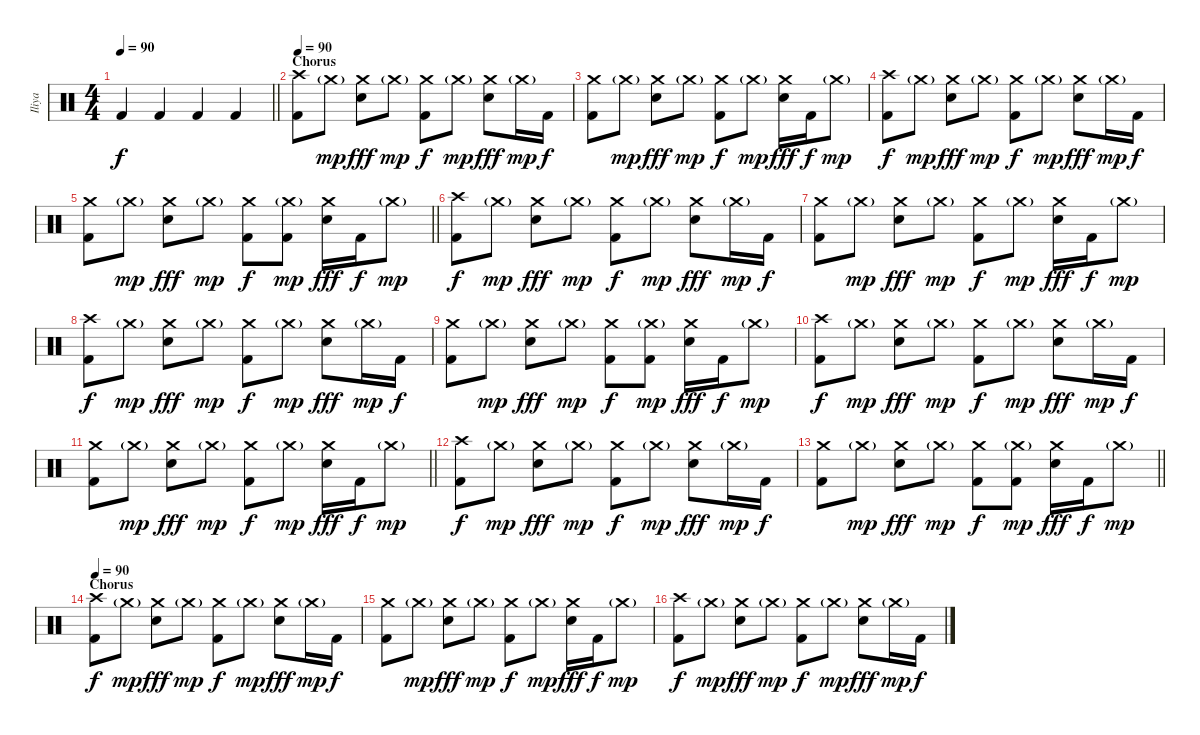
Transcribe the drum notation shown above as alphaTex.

\track ("Iliya" "Iliya") {instrument percussion}
\staff {score}
\articulation defaults
\ts (4 4)
\tempo 90
\clef neutral
\barLineRight lightlight
\ks c "Kick (hit) 2".4{dy f} "Kick (hit) 2".4 "Kick (hit) 2".4 "Kick (hit) 2".4
|
\section ("" "Chorus")
\tempo 90
("Crash high (hit)" "Kick (hit) 2").8 "Crash medium (hit)"{g}.8{dy mp} ("Crash medium (hit)" "Snare (hit) 2").8{dy fff} "Crash medium (hit)"{g}.8{dy mp} ("Crash medium (hit)" "Kick (hit) 2").8{dy f} "Crash medium (hit)"{g}.8{dy mp} ("Crash medium (hit)" "Snare (hit) 2").8{dy fff} "Crash medium (hit)"{g}.16{dy mp} "Kick (hit) 2".16{dy f} |
("Crash medium (hit)" "Kick (hit) 2").8 "Crash medium (hit)"{g}.8{dy mp} ("Crash medium (hit)" "Snare (hit) 2").8{dy fff} "Crash medium (hit)"{g}.8{dy mp} ("Crash medium (hit)" "Kick (hit) 2").8{dy f} "Crash medium (hit)"{g}.8{dy mp} ("Crash medium (hit)" "Snare (hit) 2").16{dy fff} "Kick (hit) 2".16{dy f} "Crash medium (hit)"{g}.8{dy mp} |
("Crash high (hit)" "Kick (hit) 2").8{dy f} "Crash medium (hit)"{g}.8{dy mp} ("Crash medium (hit)" "Snare (hit) 2").8{dy fff} "Crash medium (hit)"{g}.8{dy mp} ("Crash medium (hit)" "Kick (hit) 2").8{dy f} "Crash medium (hit)"{g}.8{dy mp} ("Crash medium (hit)" "Snare (hit) 2").8{dy fff} "Crash medium (hit)"{g}.16{dy mp} "Kick (hit) 2".16{dy f} |
\barLineRight lightlight
("Crash medium (hit)" "Kick (hit) 2").8 "Crash medium (hit)"{g}.8{dy mp} ("Crash medium (hit)" "Snare (hit) 2").8{dy fff} "Crash medium (hit)"{g}.8{dy mp} ("Crash medium (hit)" "Kick (hit) 2").8{dy f} ("Crash medium (hit)"{g} "Kick (hit) 2").8{dy mp} ("Crash medium (hit)" "Snare (hit) 2").16{dy fff} "Kick (hit) 2".16{dy f} "Crash medium (hit)"{g}.8{dy mp} |
("Crash high (hit)" "Kick (hit) 2").8{dy f} "Crash medium (hit)"{g}.8{dy mp} ("Crash medium (hit)" "Snare (hit) 2").8{dy fff} "Crash medium (hit)"{g}.8{dy mp} ("Crash medium (hit)" "Kick (hit) 2").8{dy f} "Crash medium (hit)"{g}.8{dy mp} ("Crash medium (hit)" "Snare (hit) 2").8{dy fff} "Crash medium (hit)"{g}.16{dy mp} "Kick (hit) 2".16{dy f} |
("Crash medium (hit)" "Kick (hit) 2").8 "Crash medium (hit)"{g}.8{dy mp} ("Crash medium (hit)" "Snare (hit) 2").8{dy fff} "Crash medium (hit)"{g}.8{dy mp} ("Crash medium (hit)" "Kick (hit) 2").8{dy f} "Crash medium (hit)"{g}.8{dy mp} ("Crash medium (hit)" "Snare (hit) 2").16{dy fff} "Kick (hit) 2".16{dy f} "Crash medium (hit)"{g}.8{dy mp} |
("Crash high (hit)" "Kick (hit) 2").8{dy f} "Crash medium (hit)"{g}.8{dy mp} ("Crash medium (hit)" "Snare (hit) 2").8{dy fff} "Crash medium (hit)"{g}.8{dy mp} ("Crash medium (hit)" "Kick (hit) 2").8{dy f} "Crash medium (hit)"{g}.8{dy mp} ("Crash medium (hit)" "Snare (hit) 2").8{dy fff} "Crash medium (hit)"{g}.16{dy mp} "Kick (hit) 2".16{dy f} |
("Crash medium (hit)" "Kick (hit) 2").8 "Crash medium (hit)"{g}.8{dy mp} ("Crash medium (hit)" "Snare (hit) 2").8{dy fff} "Crash medium (hit)"{g}.8{dy mp} ("Crash medium (hit)" "Kick (hit) 2").8{dy f} ("Crash medium (hit)"{g} "Kick (hit) 2").8{dy mp} ("Crash medium (hit)" "Snare (hit) 2").16{dy fff} "Kick (hit) 2".16{dy f} "Crash medium (hit)"{g}.8{dy mp} |
("Crash high (hit)" "Kick (hit) 2").8{dy f} "Crash medium (hit)"{g}.8{dy mp} ("Crash medium (hit)" "Snare (hit) 2").8{dy fff} "Crash medium (hit)"{g}.8{dy mp} ("Crash medium (hit)" "Kick (hit) 2").8{dy f} "Crash medium (hit)"{g}.8{dy mp} ("Crash medium (hit)" "Snare (hit) 2").8{dy fff} "Crash medium (hit)"{g}.16{dy mp} "Kick (hit) 2".16{dy f} |
\barLineRight lightlight
("Crash medium (hit)" "Kick (hit) 2").8 "Crash medium (hit)"{g}.8{dy mp} ("Crash medium (hit)" "Snare (hit) 2").8{dy fff} "Crash medium (hit)"{g}.8{dy mp} ("Crash medium (hit)" "Kick (hit) 2").8{dy f} "Crash medium (hit)"{g}.8{dy mp} ("Crash medium (hit)" "Snare (hit) 2").16{dy fff} "Kick (hit) 2".16{dy f} "Crash medium (hit)"{g}.8{dy mp} |
("Crash high (hit)" "Kick (hit) 2").8{dy f} "Crash medium (hit)"{g}.8{dy mp} ("Crash medium (hit)" "Snare (hit) 2").8{dy fff} "Crash medium (hit)"{g}.8{dy mp} ("Crash medium (hit)" "Kick (hit) 2").8{dy f} "Crash medium (hit)"{g}.8{dy mp} ("Crash medium (hit)" "Snare (hit) 2").8{dy fff} "Crash medium (hit)"{g}.16{dy mp} "Kick (hit) 2".16{dy f} |
\barLineRight lightlight
("Crash medium (hit)" "Kick (hit) 2").8 "Crash medium (hit)"{g}.8{dy mp} ("Crash medium (hit)" "Snare (hit) 2").8{dy fff} "Crash medium (hit)"{g}.8{dy mp} ("Crash medium (hit)" "Kick (hit) 2").8{dy f} ("Crash medium (hit)"{g} "Kick (hit) 2").8{dy mp} ("Crash medium (hit)" "Snare (hit) 2").16{dy fff} "Kick (hit) 2".16{dy f} "Crash medium (hit)"{g}.8{dy mp} |
\section ("" "Chorus")
\tempo 90
("Crash high (hit)" "Kick (hit) 2").8{dy f} "Crash medium (hit)"{g}.8{dy mp} ("Crash medium (hit)" "Snare (hit) 2").8{dy fff} "Crash medium (hit)"{g}.8{dy mp} ("Crash medium (hit)" "Kick (hit) 2").8{dy f} "Crash medium (hit)"{g}.8{dy mp} ("Crash medium (hit)" "Snare (hit) 2").8{dy fff} "Crash medium (hit)"{g}.16{dy mp} "Kick (hit) 2".16{dy f} |
("Crash medium (hit)" "Kick (hit) 2").8 "Crash medium (hit)"{g}.8{dy mp} ("Crash medium (hit)" "Snare (hit) 2").8{dy fff} "Crash medium (hit)"{g}.8{dy mp} ("Crash medium (hit)" "Kick (hit) 2").8{dy f} "Crash medium (hit)"{g}.8{dy mp} ("Crash medium (hit)" "Snare (hit) 2").16{dy fff} "Kick (hit) 2".16{dy f} "Crash medium (hit)"{g}.8{dy mp} |
("Crash high (hit)" "Kick (hit) 2").8{dy f} "Crash medium (hit)"{g}.8{dy mp} ("Crash medium (hit)" "Snare (hit) 2").8{dy fff} "Crash medium (hit)"{g}.8{dy mp} ("Crash medium (hit)" "Kick (hit) 2").8{dy f} "Crash medium (hit)"{g}.8{dy mp} ("Crash medium (hit)" "Snare (hit) 2").8{dy fff} "Crash medium (hit)"{g}.16{dy mp} "Kick (hit) 2".16{dy f}
